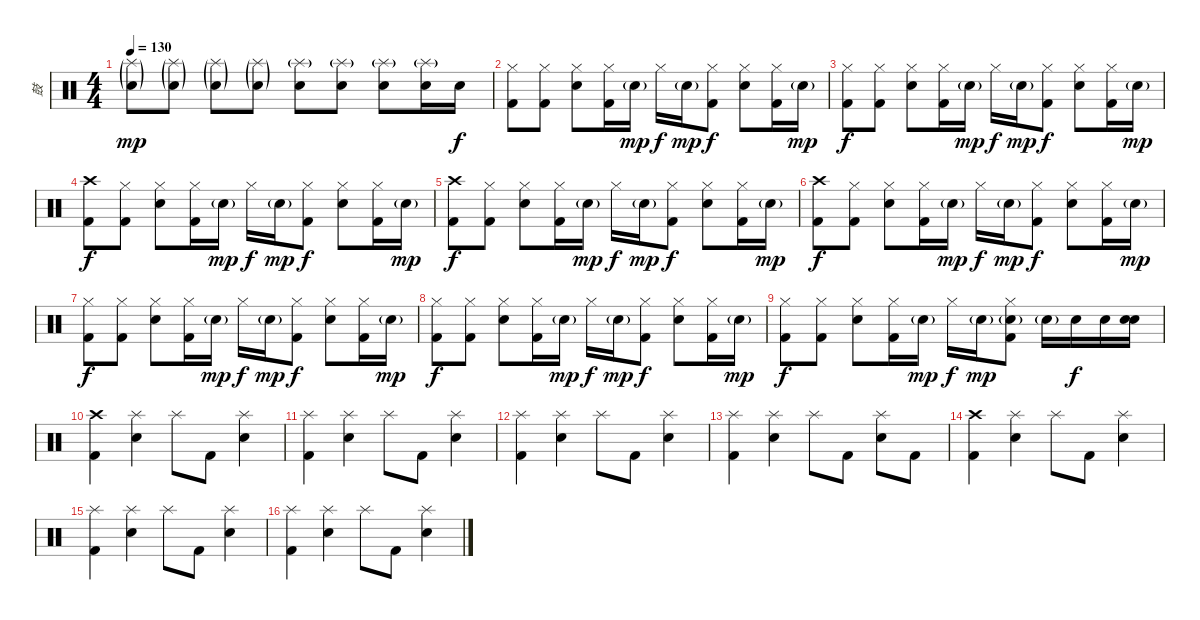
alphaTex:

\track ("鼓" "鼓") {instrument percussion}
\staff {score}
\articulation defaults
\ts (4 4)
\tempo 130
\clef neutral
\ks c
("Splash (hit)"{g} "Electric Snare (hit)"{g}).8{dy mp} ("Splash (hit)"{g} "Electric Snare (hit)"{g}).8 ("Splash (hit)"{g} "Electric Snare (hit)"{g}).8 ("Splash (hit)"{g} "Electric Snare (hit)"{g}).8 ("Splash (hit)"{g} "Electric Snare (hit)").8 ("Splash (hit)"{g} "Electric Snare (hit)").8 ("Splash (hit)"{g} "Electric Snare (hit)").8 ("Splash (hit)"{g} "Electric Snare (hit)").16 "Electric Snare (hit)".16{dy f} |
("Hi-Hat (closed)" "Kick (hit) 2").8 ("Hi-Hat (closed)" "Kick (hit) 2").8 ("Hi-Hat (closed)" "Electric Snare (hit)").8 ("Hi-Hat (closed)" "Kick (hit) 2").16 "Electric Snare (hit)"{g}.16{dy mp} "Hi-Hat (closed)".16{dy f} "Electric Snare (hit)"{g}.16{dy mp} ("Hi-Hat (closed)" "Kick (hit) 2").8{dy f} ("Hi-Hat (closed)" "Electric Snare (hit)").8 ("Hi-Hat (closed)" "Kick (hit) 2").16 "Electric Snare (hit)"{g}.16{dy mp} |
("Hi-Hat (closed)" "Kick (hit) 2").8{dy f} ("Hi-Hat (closed)" "Kick (hit) 2").8 ("Hi-Hat (closed)" "Electric Snare (hit)").8 ("Hi-Hat (closed)" "Kick (hit) 2").16 "Electric Snare (hit)"{g}.16{dy mp} "Hi-Hat (closed)".16{dy f} "Electric Snare (hit)"{g}.16{dy mp} ("Hi-Hat (closed)" "Kick (hit) 2").8{dy f} ("Hi-Hat (closed)" "Electric Snare (hit)").8 ("Hi-Hat (closed)" "Kick (hit) 2").16 "Electric Snare (hit)"{g}.16{dy mp} |
("Crash high (hit)" "Kick (hit) 2").8{dy f} ("Hi-Hat (closed)" "Kick (hit) 2").8 ("Hi-Hat (closed)" "Electric Snare (hit)").8 ("Hi-Hat (closed)" "Kick (hit) 2").16 "Electric Snare (hit)"{g}.16{dy mp} "Hi-Hat (closed)".16{dy f} "Electric Snare (hit)"{g}.16{dy mp} ("Hi-Hat (closed)" "Kick (hit) 2").8{dy f} ("Hi-Hat (closed)" "Electric Snare (hit)").8 ("Hi-Hat (closed)" "Kick (hit) 2").16 "Electric Snare (hit)"{g}.16{dy mp} |
("Crash high (hit)" "Kick (hit) 2").8{dy f} ("Hi-Hat (closed)" "Kick (hit) 2").8 ("Hi-Hat (closed)" "Electric Snare (hit)").8 ("Hi-Hat (closed)" "Kick (hit) 2").16 "Electric Snare (hit)"{g}.16{dy mp} "Hi-Hat (closed)".16{dy f} "Electric Snare (hit)"{g}.16{dy mp} ("Hi-Hat (closed)" "Kick (hit) 2").8{dy f} ("Hi-Hat (closed)" "Electric Snare (hit)").8 ("Hi-Hat (closed)" "Kick (hit) 2").16 "Electric Snare (hit)"{g}.16{dy mp} |
("Crash high (hit)" "Kick (hit) 2").8{dy f} ("Hi-Hat (closed)" "Kick (hit) 2").8 ("Hi-Hat (closed)" "Electric Snare (hit)").8 ("Hi-Hat (closed)" "Kick (hit) 2").16 "Electric Snare (hit)"{g}.16{dy mp} "Hi-Hat (closed)".16{dy f} "Electric Snare (hit)"{g}.16{dy mp} ("Hi-Hat (closed)" "Kick (hit) 2").8{dy f} ("Hi-Hat (closed)" "Electric Snare (hit)").8 ("Hi-Hat (closed)" "Kick (hit) 2").16 "Electric Snare (hit)"{g}.16{dy mp} |
("Hi-Hat (closed)" "Kick (hit) 2").8{dy f} ("Hi-Hat (closed)" "Kick (hit) 2").8 ("Hi-Hat (closed)" "Electric Snare (hit)").8 ("Hi-Hat (closed)" "Kick (hit) 2").16 "Electric Snare (hit)"{g}.16{dy mp} "Hi-Hat (closed)".16{dy f} "Electric Snare (hit)"{g}.16{dy mp} ("Hi-Hat (closed)" "Kick (hit) 2").8{dy f} ("Hi-Hat (closed)" "Electric Snare (hit)").8 ("Hi-Hat (closed)" "Kick (hit) 2").16 "Electric Snare (hit)"{g}.16{dy mp} |
("Hi-Hat (closed)" "Kick (hit) 2").8{dy f} ("Hi-Hat (closed)" "Kick (hit) 2").8 ("Hi-Hat (closed)" "Electric Snare (hit)").8 ("Hi-Hat (closed)" "Kick (hit) 2").16 "Electric Snare (hit)"{g}.16{dy mp} "Hi-Hat (closed)".16{dy f} "Electric Snare (hit)"{g}.16{dy mp} ("Hi-Hat (closed)" "Kick (hit) 2").8{dy f} ("Hi-Hat (closed)" "Electric Snare (hit)").8 ("Hi-Hat (closed)" "Kick (hit) 2").16 "Electric Snare (hit)"{g}.16{dy mp} |
("Hi-Hat (closed)" "Kick (hit) 2").8{dy f} ("Hi-Hat (closed)" "Kick (hit) 2").8 ("Hi-Hat (closed)" "Electric Snare (hit)").8 ("Hi-Hat (closed)" "Kick (hit) 2").16 "Electric Snare (hit)"{g}.16{dy mp} "Hi-Hat (closed)".16{dy f} "Electric Snare (hit)"{g}.16{dy mp} ("Hi-Hat (closed)" "Electric Snare (hit)"{g} "Kick (hit) 2").8 "Electric Snare (hit)"{g}.16 "Electric Snare (hit)".16{dy f} "Electric Snare (hit)".16 ("Electric Snare (hit)" "Electric Snare (hit)").16 |
("Crash high (hit)" "Kick (hit) 2").4 ("Splash (hit)" "Electric Snare (hit)").4 "Splash (hit)".8 "Kick (hit) 2".8 ("Splash (hit)" "Electric Snare (hit)").4 |
("Splash (hit)" "Kick (hit) 2").4 ("Splash (hit)" "Electric Snare (hit)").4 "Splash (hit)".8 "Kick (hit) 2".8 ("Splash (hit)" "Electric Snare (hit)").4 |
("Splash (hit)" "Kick (hit) 2").4 ("Splash (hit)" "Electric Snare (hit)").4 "Splash (hit)".8 "Kick (hit) 2".8 ("Splash (hit)" "Electric Snare (hit)").4 |
("Splash (hit)" "Kick (hit) 2").4 ("Splash (hit)" "Electric Snare (hit)").4 "Splash (hit)".8 "Kick (hit) 2".8 ("Splash (hit)" "Electric Snare (hit)").8 "Kick (hit) 2".8 |
("Crash high (hit)" "Kick (hit) 2").4 ("Splash (hit)" "Electric Snare (hit)").4 "Splash (hit)".8 "Kick (hit) 2".8 ("Splash (hit)" "Electric Snare (hit)").4 |
("Splash (hit)" "Kick (hit) 2").4 ("Splash (hit)" "Electric Snare (hit)").4 "Splash (hit)".8 "Kick (hit) 2".8 ("Splash (hit)" "Electric Snare (hit)").4 |
("Splash (hit)" "Kick (hit) 2").4 ("Splash (hit)" "Electric Snare (hit)").4 "Splash (hit)".8 "Kick (hit) 2".8 ("Splash (hit)" "Electric Snare (hit)").4
